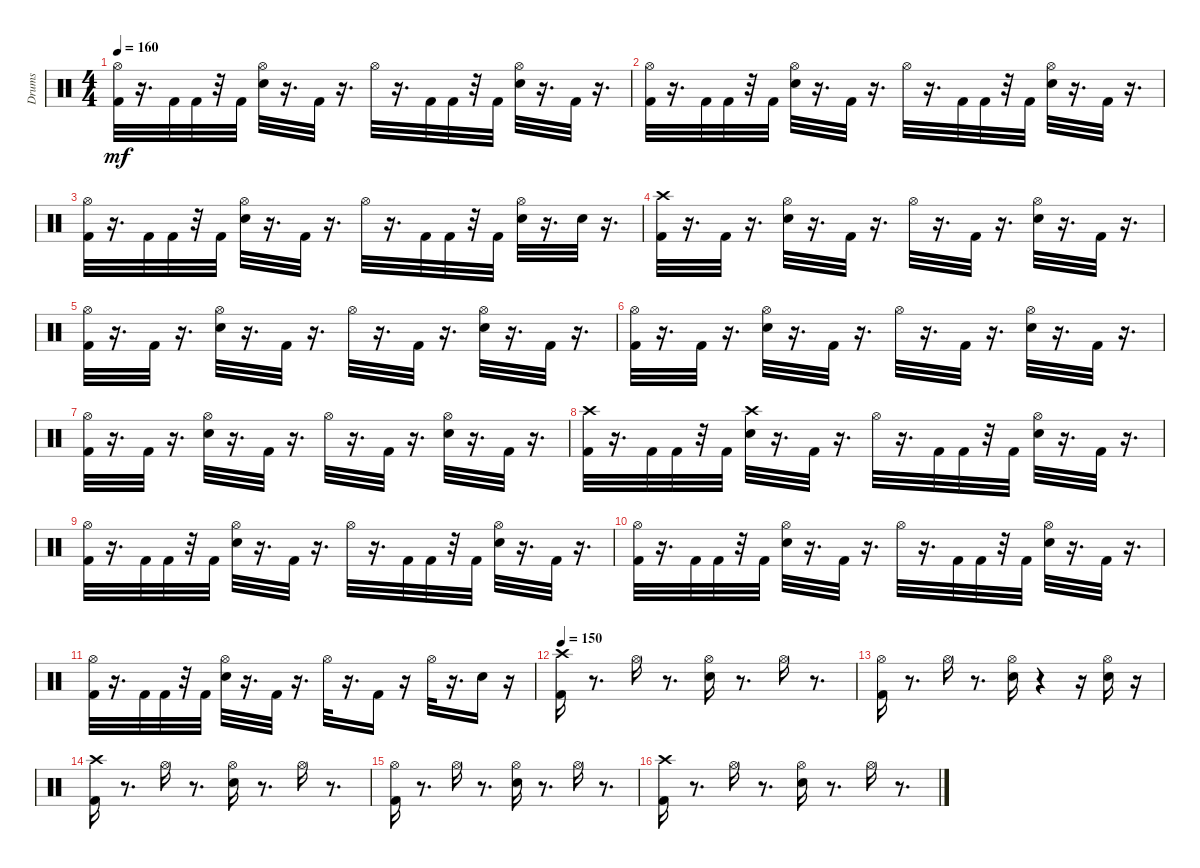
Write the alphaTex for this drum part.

\track ("Drums               " "Drums     ") {instrument percussion}
\staff {score}
\articulation defaults
\ts (4 4)
\tempo 160
\clef neutral
\ks c
("Kick (hit) 2" "Hi-Hat (open)").32{dy mf} r.16{d} "Kick (hit) 2".32 "Kick (hit) 2".32 r.32 "Kick (hit) 2".32 ("Hi-Hat (open)" "Snare (hit) 2").32 r.16{d} "Kick (hit) 2".32 r.16{d} "Hi-Hat (open)".32 r.16{d} "Kick (hit) 2".32 "Kick (hit) 2".32 r.32 "Kick (hit) 2".32 ("Hi-Hat (open)" "Snare (hit) 2").32 r.16{d} "Kick (hit) 2".32 r.16{d} |
("Kick (hit) 2" "Hi-Hat (open)").32 r.16{d} "Kick (hit) 2".32 "Kick (hit) 2".32 r.32 "Kick (hit) 2".32 ("Hi-Hat (open)" "Snare (hit) 2").32 r.16{d} "Kick (hit) 2".32 r.16{d} "Hi-Hat (open)".32 r.16{d} "Kick (hit) 2".32 "Kick (hit) 2".32 r.32 "Kick (hit) 2".32 ("Hi-Hat (open)" "Snare (hit) 2").32 r.16{d} "Kick (hit) 2".32 r.16{d} |
("Kick (hit) 2" "Hi-Hat (open)").32 r.16{d} "Kick (hit) 2".32 "Kick (hit) 2".32 r.32 "Kick (hit) 2".32 ("Hi-Hat (open)" "Snare (hit) 2").32 r.16{d} "Kick (hit) 2".32 r.16{d} "Hi-Hat (open)".32 r.16{d} "Kick (hit) 2".32 "Kick (hit) 2".32 r.32 "Kick (hit) 2".32 ("Hi-Hat (open)" "Snare (hit) 2").32 r.16{d} "Snare (hit) 2".32 r.16{d} |
("Kick (hit) 2" "Crash high (hit)").32 r.16{d} "Kick (hit) 2".32 r.16{d} ("Hi-Hat (open)" "Snare (hit) 2").32 r.16{d} "Kick (hit) 2".32 r.16{d} "Hi-Hat (open)".32 r.16{d} "Kick (hit) 2".32 r.16{d} ("Hi-Hat (open)" "Snare (hit) 2").32 r.16{d} "Kick (hit) 2".32 r.16{d} |
("Kick (hit) 2" "Hi-Hat (open)").32 r.16{d} "Kick (hit) 2".32 r.16{d} ("Hi-Hat (open)" "Snare (hit) 2").32 r.16{d} "Kick (hit) 2".32 r.16{d} "Hi-Hat (open)".32 r.16{d} "Kick (hit) 2".32 r.16{d} ("Hi-Hat (open)" "Snare (hit) 2").32 r.16{d} "Kick (hit) 2".32 r.16{d} |
("Kick (hit) 2" "Hi-Hat (open)").32 r.16{d} "Kick (hit) 2".32 r.16{d} ("Hi-Hat (open)" "Snare (hit) 2").32 r.16{d} "Kick (hit) 2".32 r.16{d} "Hi-Hat (open)".32 r.16{d} "Kick (hit) 2".32 r.16{d} ("Hi-Hat (open)" "Snare (hit) 2").32 r.16{d} "Kick (hit) 2".32 r.16{d} |
("Kick (hit) 2" "Hi-Hat (open)").32 r.16{d} "Kick (hit) 2".32 r.16{d} ("Hi-Hat (open)" "Snare (hit) 2").32 r.16{d} "Kick (hit) 2".32 r.16{d} "Hi-Hat (open)".32 r.16{d} "Kick (hit) 2".32 r.16{d} ("Hi-Hat (open)" "Snare (hit) 2").32 r.16{d} "Kick (hit) 2".32 r.16{d} |
("Kick (hit) 2" "Crash high (hit)").32 r.16{d} "Kick (hit) 2".32 "Kick (hit) 2".32 r.32 "Kick (hit) 2".32 ("Snare (hit) 2" "Crash high (hit)").32 r.16{d} "Kick (hit) 2".32 r.16{d} "Hi-Hat (open)".32 r.16{d} "Kick (hit) 2".32 "Kick (hit) 2".32 r.32 "Kick (hit) 2".32 ("Hi-Hat (open)" "Snare (hit) 2").32 r.16{d} "Kick (hit) 2".32 r.16{d} |
("Kick (hit) 2" "Hi-Hat (open)").32 r.16{d} "Kick (hit) 2".32 "Kick (hit) 2".32 r.32 "Kick (hit) 2".32 ("Hi-Hat (open)" "Snare (hit) 2").32 r.16{d} "Kick (hit) 2".32 r.16{d} "Hi-Hat (open)".32 r.16{d} "Kick (hit) 2".32 "Kick (hit) 2".32 r.32 "Kick (hit) 2".32 ("Hi-Hat (open)" "Snare (hit) 2").32 r.16{d} "Kick (hit) 2".32 r.16{d} |
("Kick (hit) 2" "Hi-Hat (open)").32 r.16{d} "Kick (hit) 2".32 "Kick (hit) 2".32 r.32 "Kick (hit) 2".32 ("Hi-Hat (open)" "Snare (hit) 2").32 r.16{d} "Kick (hit) 2".32 r.16{d} "Hi-Hat (open)".32 r.16{d} "Kick (hit) 2".32 "Kick (hit) 2".32 r.32 "Kick (hit) 2".32 ("Hi-Hat (open)" "Snare (hit) 2").32 r.16{d} "Kick (hit) 2".32 r.16{d} |
("Kick (hit) 2" "Hi-Hat (open)").32 r.16{d} "Kick (hit) 2".32 "Kick (hit) 2".32 r.32 "Kick (hit) 2".32 ("Hi-Hat (open)" "Snare (hit) 2").32 r.16{d} "Kick (hit) 2".32 r.16{d} "Hi-Hat (open)".32 r.16{d} "Kick (hit) 2".16 r.16 "Hi-Hat (open)".32 r.16{d} "Snare (hit) 2".16 r.16 |
\tempo 150
("Crash high (hit)" "Kick (hit) 2").16 r.8{d} "Hi-Hat (open)".16 r.8{d} ("Hi-Hat (open)" "Snare (hit) 2").16 r.8{d} "Hi-Hat (open)".16 r.8{d} |
("Kick (hit) 2" "Hi-Hat (open)").16 r.8{d} "Hi-Hat (open)".16 r.8{d} ("Hi-Hat (open)" "Snare (hit) 2").16 r.4 r.16 ("Snare (hit) 2" "Hi-Hat (open)").16 r.16 |
("Kick (hit) 2" "Crash high (hit)").16 r.8{d} "Hi-Hat (open)".16 r.8{d} ("Hi-Hat (open)" "Snare (hit) 2").16 r.8{d} "Hi-Hat (open)".16 r.8{d} |
("Kick (hit) 2" "Hi-Hat (open)").16 r.8{d} "Hi-Hat (open)".16 r.8{d} ("Hi-Hat (open)" "Snare (hit) 2").16 r.8{d} "Hi-Hat (open)".16 r.8{d} |
("Kick (hit) 2" "Crash high (hit)").16 r.8{d} "Hi-Hat (open)".16 r.8{d} ("Hi-Hat (open)" "Snare (hit) 2").16 r.8{d} "Hi-Hat (open)".16 r.8{d}
